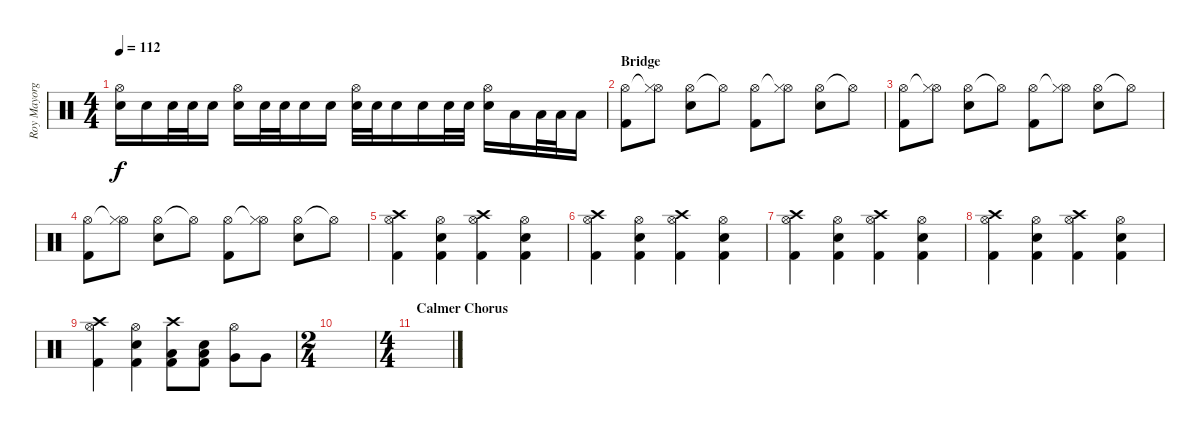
\track ("Roy Mayorga" "Roy Mayorg") {instrument percussion}
\staff {score}
\articulation defaults
\ts (4 4)
\tempo 112
\clef neutral
\ks c
("Hi-Hat (open)" "Electric Snare (hit)").16{dy f} "Electric Snare (hit)".16 "Electric Snare (hit)".32 "Electric Snare (hit)".32 "Electric Snare (hit)".16 ("Hi-Hat (open)" "Electric Snare (hit)").16 "Electric Snare (hit)".32 "Electric Snare (hit)".32 "Electric Snare (hit)".16 "Electric Snare (hit)".16 ("Hi-Hat (open)" "Electric Snare (hit)").32 "Electric Snare (hit)".32 "Electric Snare (hit)".16 "Electric Snare (hit)".16 "Electric Snare (hit)".32 "Electric Snare (hit)".32 ("Hi-Hat (open)" "Electric Snare (hit)").16 "Low Tom (hit)".16 "Low Tom (hit)".32 "Low Tom (hit)".32 "Low Tom (hit)".16 |
\section ("" "Bridge")
("Hi-Hat (open)" "Kick (hit) 2").8 ("Hi-Hat (open)"{t} "Hi-Hat (closed)").8 ("Hi-Hat (open)" "Snare (hit) 2").8 "Hi-Hat (open)"{t}.8 ("Hi-Hat (open)" "Kick (hit) 2").8 ("Hi-Hat (open)"{t} "Hi-Hat (closed)").8 ("Hi-Hat (open)" "Snare (hit) 2").8 "Hi-Hat (open)"{t}.8 |
("Hi-Hat (open)" "Kick (hit) 2").8 ("Hi-Hat (open)"{t} "Hi-Hat (closed)").8 ("Hi-Hat (open)" "Snare (hit) 2").8 "Hi-Hat (open)"{t}.8 ("Hi-Hat (open)" "Kick (hit) 2").8 ("Hi-Hat (open)"{t} "Hi-Hat (closed)").8 ("Hi-Hat (open)" "Snare (hit) 2").8 "Hi-Hat (open)"{t}.8 |
("Hi-Hat (open)" "Kick (hit) 2").8 ("Hi-Hat (open)"{t} "Hi-Hat (closed)").8 ("Hi-Hat (open)" "Snare (hit) 2").8 "Hi-Hat (open)"{t}.8 ("Hi-Hat (open)" "Kick (hit) 2").8 ("Hi-Hat (open)"{t} "Hi-Hat (closed)").8 ("Hi-Hat (open)" "Snare (hit) 2").8 "Hi-Hat (open)"{t}.8 |
("Crash high (hit)" "Hi-Hat (open)" "Kick (hit) 2").4 ("Hi-Hat (open)" "Snare (hit) 2" "Kick (hit) 2").4 ("Crash high (hit)" "Hi-Hat (open)" "Kick (hit) 2").4 ("Hi-Hat (open)" "Snare (hit) 2" "Kick (hit) 2").4 |
("Crash high (hit)" "Hi-Hat (open)" "Kick (hit) 2").4 ("Hi-Hat (open)" "Snare (hit) 2" "Kick (hit) 2").4 ("Crash high (hit)" "Hi-Hat (open)" "Kick (hit) 2").4 ("Hi-Hat (open)" "Snare (hit) 2" "Kick (hit) 2").4 |
("Crash high (hit)" "Hi-Hat (open)" "Kick (hit) 2").4 ("Hi-Hat (open)" "Snare (hit) 2" "Kick (hit) 2").4 ("Crash high (hit)" "Hi-Hat (open)" "Kick (hit) 2").4 ("Hi-Hat (open)" "Snare (hit) 2" "Kick (hit) 2").4 |
("Crash high (hit)" "Hi-Hat (open)" "Kick (hit) 2").4 ("Hi-Hat (open)" "Snare (hit) 2" "Kick (hit) 2").4 ("Crash high (hit)" "Hi-Hat (open)" "Kick (hit) 2").4 ("Hi-Hat (open)" "Snare (hit) 2" "Kick (hit) 2").4 |
("Crash high (hit)" "Hi-Hat (open)" "Kick (hit) 2").4 ("Hi-Hat (open)" "Snare (hit) 2" "Kick (hit) 2").4 ("Crash high (hit)" "Low Tom (hit)" "Kick (hit) 2").8 ("Low Tom (hit)" "Snare (hit) 2" "Kick (hit) 2").8 ("Hi-Hat (open)" "Very Low Tom (hit)").8 "Very Low Tom (hit)".8 |
\ts (2 4)
|
\ts (4 4)
\section ("" "Calmer Chorus")
